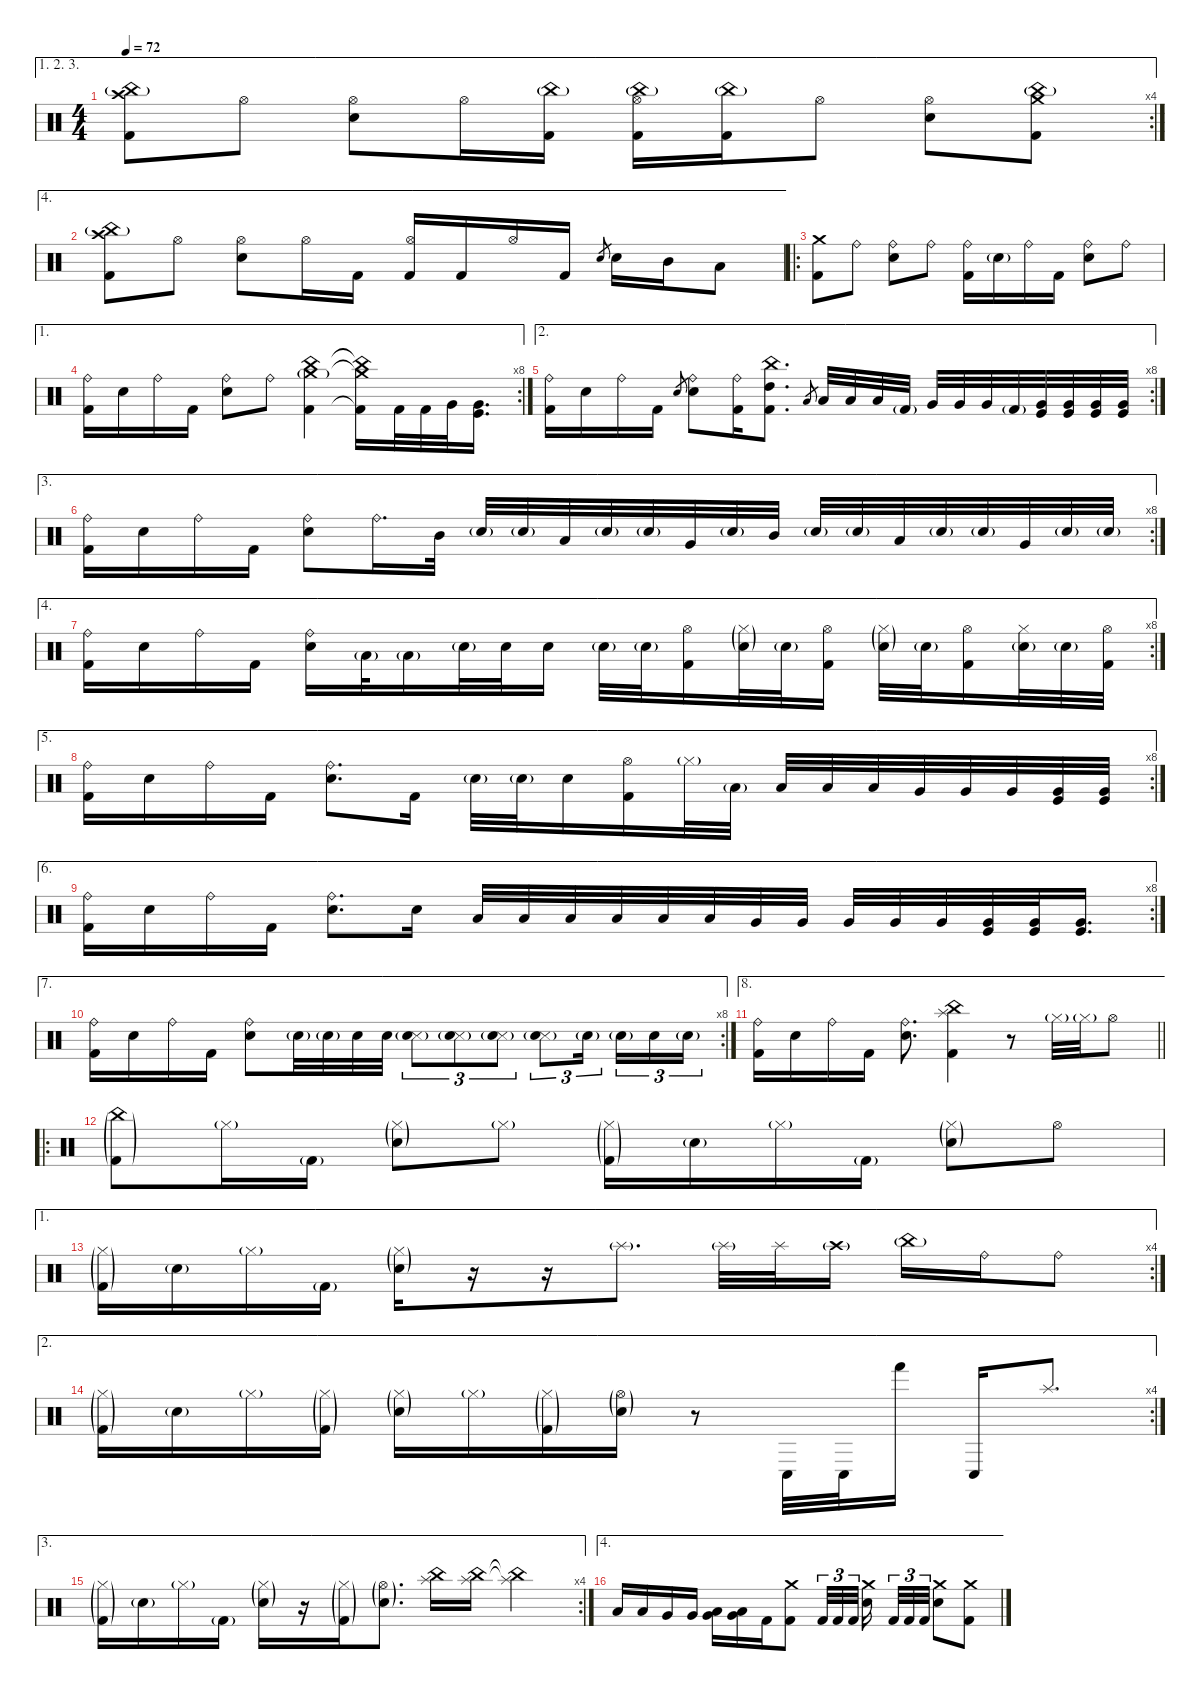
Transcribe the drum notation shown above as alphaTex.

\defaultSystemsLayout 4
\hideDynamics
\bracketExtendMode nobrackets
\singleTrackTrackNamePolicy hidden
\multiTrackTrackNamePolicy hidden
\firstSystemTrackNameMode fullname
\firstSystemTrackNameOrientation horizontal
\otherSystemsTrackNameOrientation horizontal
\track ("Drums" "drm.") {instrument percussion}
\staff {score}
\articulation defaults
\ae (1 2 3)
\rc 4
\ts (4 4)
\tempo 72
\clef neutral
\ks c
("Crash high (hit)" "China (hit)"{g} "Kick (hit) 2").8{dy f beam Down} "Hi-Hat (open)".8{beam Down} ("Hi-Hat (open)" "Snare (hit) 2").8{beam Down} "Hi-Hat (open)".16{beam Down} ("China (hit)"{g} "Kick (hit) 2").16{beam Down} ("China (hit)"{g} "Hi-Hat (open)" "Kick (hit) 2").16{beam Down} ("China (hit)"{g} "Kick (hit) 2").16{beam Down} "Hi-Hat (open)".8{beam Down} ("Hi-Hat (open)" "Snare (hit) 2").8{beam Down} ("Crash medium (hit)" "China (hit)"{g} "Kick (hit) 2").8{beam Down} |
\ae 4
("Crash high (hit)" "China (hit)"{g} "Kick (hit) 2").8{beam Down} "Hi-Hat (open)".8{beam Down} ("Hi-Hat (open)" "Snare (hit) 2").8{beam Down} "Hi-Hat (open)".16{beam Down} "Kick (hit) 2".16{beam Down} ("Hi-Hat (open)" "Kick (hit) 2").16{beam Up} "Kick (hit) 2".16{beam Up} "Hi-Hat (open)".16{beam Up} "Kick (hit) 2".16{beam Up} "Electric Snare (hit)".8{gr dy mf beam Up} "Snare (hit) 2".16{dy f beam Down} "Mid Tom (hit)".16{beam Down} "Low Tom (hit)".8{beam Down} |
\ro
("Crash medium (hit)" "Kick (hit) 2").8{beam Down} "Ride (bell)".8{beam Down} ("Ride (bell)" "Snare (hit) 2").8{beam Down} "Ride (bell)".8{beam Down} ("Ride (bell)" "Kick (hit) 2").16{beam Down} "Snare (hit) 2"{g}.16{beam Down} "Ride (bell)".16{beam Down} "Kick (hit) 2".16{beam Down} ("Ride (bell)" "Snare (hit) 2").8{beam Down} "Ride (bell)".8{beam Down} |
\ae 1
\rc 8
("Ride (bell)" "Kick (hit) 2").16{beam Down} "Snare (hit) 2".16{beam Down} "Ride (bell)".16{beam Down} "Kick (hit) 2".16{beam Down} ("Ride (bell)" "Snare (hit) 2").8{beam Down} "Ride (bell)".8{beam Down} ("China (hit)" "Crash medium (hit)"{g} "Kick (hit) 2").4{beam Down} ("China (hit)"{t} "Crash medium (hit)"{t} "Kick (hit) 2"{t}).16{beam Down} "Kick (hit) 2".32{dy mf beam Down} "Kick (hit) 2".32{beam Down} "Very Low Tom (hit)".32{dy f beam Down} ("Very Low Tom (hit)" "Kick (hit)").16{d beam Down} |
\ae 2
\rc 8
("Ride (bell)" "Kick (hit) 2").16{beam Down} "Snare (hit) 2".16{beam Down} "Ride (bell)".16{beam Down} "Kick (hit) 2".16{beam Down} "Electric Snare (hit)".8{gr dy mf beam Up} ("Ride (bell)" "Snare (hit) 2").8{dy f beam Down} ("Ride (bell)" "Kick (hit) 2").16{beam Down} ("China (hit)" "High Tom (hit)" "Kick (hit) 2").8{d beam Down} "Low Tom (hit)".8{gr dy mf beam Up} "Low Tom (hit)".32{dy f beam Up} "Low Tom (hit)".32{beam Up} "Low Tom (hit)".32{beam Up} "Kick (hit) 2"{g}.32{dy mf beam Up} "Very Low Tom (hit)".32{dy f beam Up} "Very Low Tom (hit)".32{beam Up} "Very Low Tom (hit)".32{beam Up} "Kick (hit) 2"{g}.32{dy mf beam Up} ("Very Low Tom (hit)" "Kick (hit)").32{dy f beam Up} ("Very Low Tom (hit)" "Kick (hit)").32{beam Up} ("Very Low Tom (hit)" "Kick (hit)").32{beam Up} ("Very Low Tom (hit)" "Kick (hit)").32{beam Up} |
\ae 3
\rc 8
("Ride (bell)" "Kick (hit) 2").16{beam Down} "Snare (hit) 2".16{beam Down} "Ride (bell)".16{beam Down} "Kick (hit) 2".16{beam Down} ("Ride (bell)" "Snare (hit) 2").8{beam Down} "Ride (bell)".16{d beam Down} "Mid Tom (hit)".32{beam Down} "Snare (hit) 2"{g}.32{dy mf beam Up} "Snare (hit) 2"{g}.32{beam Up} "Low Tom (hit)".32{dy f beam Up} "Snare (hit) 2"{g}.32{dy mf beam Up} "Snare (hit) 2"{g}.32{beam Up} "Very Low Tom (hit)".32{dy f beam Up} "Snare (hit) 2"{g}.32{dy mf beam Up} "Mid Tom (hit)".32{dy f beam Up} "Snare (hit) 2"{g}.32{dy mf beam Up} "Snare (hit) 2"{g}.32{beam Up} "Low Tom (hit)".32{dy f beam Up} "Snare (hit) 2"{g}.32{dy mf beam Up} "Snare (hit) 2"{g}.32{beam Up} "Very Low Tom (hit)".32{dy f beam Up} "Snare (hit) 2"{g}.32{dy mf beam Up} "Snare (hit) 2"{g}.32{beam Up} |
\ae 4
\rc 8
("Ride (bell)" "Kick (hit) 2").16{dy f beam Down} "Snare (hit) 2".16{beam Down} "Ride (bell)".16{beam Down} "Kick (hit) 2".16{beam Down} ("Ride (bell)" "Snare (hit) 2").16{beam Down} "Low Tom (hit)"{g}.32{dy mf beam Down} "Low Tom (hit)"{g}.16{beam Down} "Snare (hit) 2"{g}.32{beam Down} "Snare (hit) 2".32{dy f beam Down} "Snare (hit) 2".16{beam Down} "Snare (hit) 2"{g}.32{dy mf beam Down} "Snare (hit) 2"{g}.32{beam Down} ("Hi-Hat (open)" "Kick (hit) 2").16{dy f beam Down} ("Hi-Hat (closed)"{g} "Snare (hit) 2"{g}).32{dy mf beam Down} "Snare (hit) 2"{g}.32{beam Down} ("Hi-Hat (open)" "Kick (hit) 2").16{dy f beam Down} ("Hi-Hat (closed)"{g} "Snare (hit) 2"{g}).32{dy mf beam Down} "Snare (hit) 2"{g}.32{beam Down} ("Hi-Hat (open)" "Kick (hit) 2").16{dy f beam Down} ("Hi-Hat (closed)" "Snare (hit) 2"{g}).32{beam Down} "Snare (hit) 2"{g}.32{dy mf beam Down} ("Hi-Hat (open)" "Kick (hit) 2").32{dy f beam Down} |
\ae 5
\rc 8
("Ride (bell)" "Kick (hit) 2").16{beam Down} "Snare (hit) 2".16{beam Down} "Ride (bell)".16{beam Down} "Kick (hit) 2".16{beam Down} ("Ride (bell)" "Snare (hit) 2").8{d beam Down} "Kick (hit) 2".16{beam Down} "Snare (hit) 2"{g}.32{dy mf beam Down} "Snare (hit) 2"{g}.32{beam Down} "Snare (hit) 2".16{dy f beam Down} ("Hi-Hat (open)" "Kick (hit) 2").16{beam Down} "Hi-Hat (closed)"{g}.32{dy mf beam Down} "Low Tom (hit)"{g}.32{beam Down} "Low Tom (hit)".32{dy f beam Up} "Low Tom (hit)".32{beam Up} "Low Tom (hit)".32{beam Up} "Very Low Tom (hit)".32{beam Up} "Very Low Tom (hit)".32{beam Up} "Very Low Tom (hit)".32{beam Up} ("Very Low Tom (hit)" "Kick (hit)").32{beam Up} ("Very Low Tom (hit)" "Kick (hit)").32{beam Up} |
\ae 6
\rc 8
("Ride (bell)" "Kick (hit) 2").16{beam Down} "Snare (hit) 2".16{beam Down} "Ride (bell)".16{beam Down} "Kick (hit) 2".16{beam Down} ("Ride (bell)" "Snare (hit) 2").8{d beam Down} "Snare (hit) 2".16{beam Down} "Low Tom (hit)".32{beam Up} "Low Tom (hit)".32{beam Up} "Low Tom (hit)".32{beam Up} "Low Tom (hit)".32{beam Up} "Low Tom (hit)".32{beam Up} "Low Tom (hit)".32{beam Up} "Very Low Tom (hit)".32{beam Up} "Very Low Tom (hit)".32{beam Up} "Very Low Tom (hit)".32{beam Up} "Very Low Tom (hit)".32{beam Up} "Very Low Tom (hit)".32{beam Up} ("Very Low Tom (hit)" "Kick (hit)").32{beam Up} ("Very Low Tom (hit)" "Kick (hit)").32{beam Up} ("Very Low Tom (hit)" "Kick (hit)").16{d beam Up} |
\ae 7
\rc 8
("Ride (bell)" "Kick (hit) 2").16{beam Down} "Snare (hit) 2".16{beam Down} "Ride (bell)".16{beam Down} "Kick (hit) 2".16{beam Down} ("Ride (bell)" "Snare (hit) 2").8{beam Down} "Snare (hit) 2"{g}.32{dy mf beam Down} "Snare (hit) 2"{g}.32{beam Down} "Snare (hit) 2".32{dy f beam Down} "Snare (hit) 2".32{beam Down} ("Snare (side stick) 3" "Snare (hit) 2"{g}).8{tu (3 2) dy fff beam Down} ("Snare (side stick) 3" "Snare (hit) 2"{g}).8{tu (3 2) beam Down} ("Snare (side stick) 3" "Snare (hit) 2"{g}).8{tu (3 2) beam Down} ("Snare (side stick) 3" "Snare (hit) 2"{g}).8{tu (3 2) beam Down} "Snare (hit) 2"{g}.16{tu (3 2) dy ff beam Down} "Snare (hit) 2"{g}.16{tu (3 2) beam Down} "Snare (hit) 2".16{tu (3 2) dy fff beam Down} "Snare (hit) 2"{g}.16{tu (3 2) dy ff beam Down} |
\ae 8
\barLineRight lightlight
("Ride (bell)" "Kick (hit) 2").16{dy f beam Down} "Snare (hit) 2".16{beam Down} "Ride (bell)".16{beam Down} "Kick (hit) 2".16{beam Down} ("Ride (bell)" "Snare (hit) 2").8{d dy fff beam Down} ("China (hit)" "Splash (hit)" "Kick (hit) 2").4{beam Down} r.8{beam Down} "Hi-Hat (closed)"{g}.32{dy ff beam Down} "Hi-Hat (closed)"{g}.32{beam Down} "Hi-Hat (open)".8{dy fff beam Down} |
\ro
("China (hit)"{g} "Kick (hit) 2"{g}).8{dy ff beam Down} "Hi-Hat (closed)"{g}.16{beam Down} "Kick (hit) 2"{g}.16{beam Down} ("Hi-Hat (closed)"{g} "Snare (hit) 2"{g}).8{beam Down} "Hi-Hat (closed)"{g}.8{beam Down} ("Hi-Hat (closed)"{g} "Kick (hit) 2"{g}).16{beam Down} "Snare (hit) 2"{g}.16{beam Down} "Hi-Hat (closed)"{g}.16{beam Down} "Kick (hit) 2"{g}.16{beam Down} ("Hi-Hat (closed)"{g} "Snare (hit) 2"{g}).8{beam Down} "Hi-Hat (open)".8{dy fff beam Down} |
\ae 1
\rc 4
("Hi-Hat (closed)"{g} "Kick (hit) 2"{g}).16{dy ff beam Down} "Snare (hit) 2"{g}.16{beam Down} "Hi-Hat (closed)"{g}.16{beam Down} "Kick (hit) 2"{g}.16{beam Down} ("Hi-Hat (closed)"{g} "Snare (hit) 2"{g}).16{beam Down} r.16{beam Down} r.16{beam Down} "Splash (hit)"{g}.8{d beam Down} "Splash (hit)"{g}.32{beam Down} "Splash (hit)".32{dy fff beam Down} "Crash high (hit)"{g}.16{dy ff beam Down} "China (hit)"{g}.16{beam Down} "Ride (bell)".16{dy fff beam Down} "Ride (bell)".8{beam Down} |
\ae 2
\rc 4
("Hi-Hat (closed)"{g} "Kick (hit) 2"{g}).16{dy ff beam Down} "Snare (hit) 2"{g}.16{beam Down} "Hi-Hat (closed)"{g}.16{beam Down} ("Hi-Hat (closed)"{g} "Kick (hit) 2"{g}).16{beam Down} ("Hi-Hat (closed)"{g} "Snare (hit) 2"{g}).16{beam Down} "Hi-Hat (closed)"{g}.16{beam Down} ("Hi-Hat (closed)"{g} "Kick (hit) 2"{g}).16{beam Down} ("Hi-Hat (open)"{g} "Snare (hit) 2"{g}).16{beam Down} r.8{beam Down} "Conga low (hit)".32{dy f beam Up} "Conga low (hit)".32{dy fff beam Up} "Hand (hit)".16{dy f beam Up} "Conga low (hit)".16{beam Up} "Splash (hit)".8{d dy fff beam Up} |
\ae 3
\rc 4
("Hi-Hat (closed)"{g} "Kick (hit) 2"{g}).16{dy ff beam Down} "Snare (hit) 2"{g}.16{beam Down} "Hi-Hat (closed)"{g}.16{beam Down} "Kick (hit) 2"{g}.16{beam Down} ("Hi-Hat (closed)"{g} "Snare (hit) 2"{g}).16{beam Down} r.16{beam Down} ("Hi-Hat (closed)"{g} "Kick (hit) 2"{g}).16{beam Down} ("Hi-Hat (open)"{g} "Snare (hit) 2"{g}).8{d beam Down} ("Splash (hit)" "China (hit)").16{dy f beam Down} ("Splash (hit)" "China (hit)").16{beam Down} ("Splash (hit)"{t} "China (hit)"{t}).4{beam Down} |
\ae 4 "Low Tom (hit)".16{beam Up} "Low Tom (hit)".16{beam Up} "Very Low Tom (hit)".16{beam Up} "Very Low Tom (hit)".16{beam Up}
("Low Tom (hit)" "Very Low Tom (hit)").16{beam Down} ("Low Tom (hit)" "Very Low Tom (hit)").16{beam Down} "Kick (hit) 2".16{beam Down} ("Crash medium (hit)" "Kick (hit) 2").8{beam Down} "Kick (hit) 2".32{tu (3 2) beam Up} "Kick (hit) 2".32{tu (3 2) beam Up} "Kick (hit) 2".32{tu (3 2) beam Up} ("Crash medium (hit)" "Snare (hit) 2").16{beam Down} "Kick (hit) 2".32{tu (3 2) beam Up} "Kick (hit) 2".32{tu (3 2) beam Up} "Kick (hit) 2".32{tu (3 2) beam Up} ("Crash medium (hit)" "Snare (hit) 2").8{beam Down} ("Crash medium (hit)" "Kick (hit) 2").8{beam Down}
